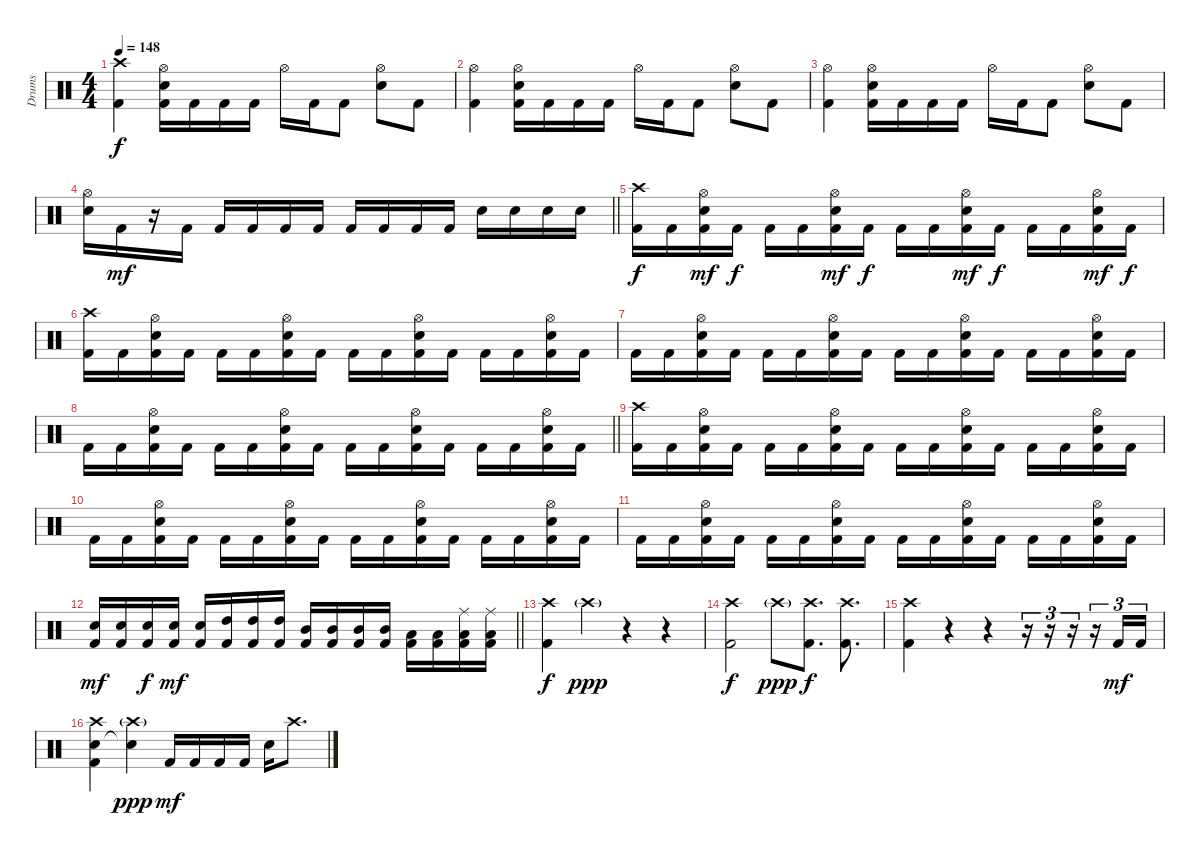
\track ("Drums" "Drums") {instrument percussion}
\staff {score}
\articulation defaults
\ts (4 4)
\tempo 148
\clef neutral
\ks c
("Crash high (hit)" "Kick (hit) 2").4{dy f} ("Electric Snare (hit)" "Hi-Hat (open)" "Kick (hit) 2").16 "Kick (hit) 2".16 "Kick (hit) 2".16 "Kick (hit) 2".16 "Hi-Hat (open)".16 "Kick (hit) 2".16 "Kick (hit) 2".8 ("Electric Snare (hit)" "Hi-Hat (open)").8 "Kick (hit) 2".8 |
("Hi-Hat (open)" "Kick (hit) 2").4 ("Electric Snare (hit)" "Hi-Hat (open)" "Kick (hit) 2").16 "Kick (hit) 2".16 "Kick (hit) 2".16 "Kick (hit) 2".16 "Hi-Hat (open)".16 "Kick (hit) 2".16 "Kick (hit) 2".8 ("Electric Snare (hit)" "Hi-Hat (open)").8 "Kick (hit) 2".8 |
("Hi-Hat (open)" "Kick (hit) 2").4 ("Electric Snare (hit)" "Hi-Hat (open)" "Kick (hit) 2").16 "Kick (hit) 2".16 "Kick (hit) 2".16 "Kick (hit) 2".16 "Hi-Hat (open)".16 "Kick (hit) 2".16 "Kick (hit) 2".8 ("Electric Snare (hit)" "Hi-Hat (open)").8 "Kick (hit) 2".8 |
\barLineRight lightlight
("Electric Snare (hit)" "Hi-Hat (open)").16 "Kick (hit) 2".16{dy mf} r.16 "Kick (hit) 2".16 "Kick (hit) 2".16 "Kick (hit) 2".16 "Kick (hit) 2".16 "Kick (hit) 2".16 "Kick (hit) 2".16 "Kick (hit) 2".16 "Kick (hit) 2".16 "Kick (hit) 2".16 "Electric Snare (hit)".16 "Electric Snare (hit)".16 "Electric Snare (hit)".16 "Electric Snare (hit)".16 |
\section ("" "")
("Crash high (hit)" "Kick (hit) 2").16{dy f} "Kick (hit) 2".16 ("Hi-Hat (open)" "Electric Snare (hit)" "Kick (hit) 2").16{dy mf} "Kick (hit) 2".16{dy f} "Kick (hit) 2".16 "Kick (hit) 2".16 ("Hi-Hat (open)" "Electric Snare (hit)" "Kick (hit) 2").16{dy mf} "Kick (hit) 2".16{dy f} "Kick (hit) 2".16 "Kick (hit) 2".16 ("Hi-Hat (open)" "Electric Snare (hit)" "Kick (hit) 2").16{dy mf} "Kick (hit) 2".16{dy f} "Kick (hit) 2".16 "Kick (hit) 2".16 ("Hi-Hat (open)" "Electric Snare (hit)" "Kick (hit) 2").16{dy mf} "Kick (hit) 2".16{dy f} |
("Crash high (hit)" "Kick (hit) 2").16 "Kick (hit) 2".16 ("Hi-Hat (open)" "Electric Snare (hit)" "Kick (hit) 2").16 "Kick (hit) 2".16 "Kick (hit) 2".16 "Kick (hit) 2".16 ("Hi-Hat (open)" "Electric Snare (hit)" "Kick (hit) 2").16 "Kick (hit) 2".16 "Kick (hit) 2".16 "Kick (hit) 2".16 ("Hi-Hat (open)" "Electric Snare (hit)" "Kick (hit) 2").16 "Kick (hit) 2".16 "Kick (hit) 2".16 "Kick (hit) 2".16 ("Hi-Hat (open)" "Electric Snare (hit)" "Kick (hit) 2").16 "Kick (hit) 2".16 |
"Kick (hit) 2".16 "Kick (hit) 2".16 ("Hi-Hat (open)" "Electric Snare (hit)" "Kick (hit) 2").16 "Kick (hit) 2".16 "Kick (hit) 2".16 "Kick (hit) 2".16 ("Hi-Hat (open)" "Electric Snare (hit)" "Kick (hit) 2").16 "Kick (hit) 2".16 "Kick (hit) 2".16 "Kick (hit) 2".16 ("Hi-Hat (open)" "Electric Snare (hit)" "Kick (hit) 2").16 "Kick (hit) 2".16 "Kick (hit) 2".16 "Kick (hit) 2".16 ("Hi-Hat (open)" "Electric Snare (hit)" "Kick (hit) 2").16 "Kick (hit) 2".16 |
\barLineRight lightlight "Kick (hit) 2".16 "Kick (hit) 2".16
("Hi-Hat (open)" "Electric Snare (hit)" "Kick (hit) 2").16 "Kick (hit) 2".16 "Kick (hit) 2".16 "Kick (hit) 2".16 ("Hi-Hat (open)" "Electric Snare (hit)" "Kick (hit) 2").16 "Kick (hit) 2".16 "Kick (hit) 2".16 "Kick (hit) 2".16 ("Hi-Hat (open)" "Electric Snare (hit)" "Kick (hit) 2").16 "Kick (hit) 2".16 "Kick (hit) 2".16 "Kick (hit) 2".16 ("Hi-Hat (open)" "Electric Snare (hit)" "Kick (hit) 2").16 "Kick (hit) 2".16 |
("Crash high (hit)" "Kick (hit) 2").16 "Kick (hit) 2".16 ("Hi-Hat (open)" "Electric Snare (hit)" "Kick (hit) 2").16 "Kick (hit) 2".16 "Kick (hit) 2".16 "Kick (hit) 2".16 ("Hi-Hat (open)" "Electric Snare (hit)" "Kick (hit) 2").16 "Kick (hit) 2".16 "Kick (hit) 2".16 "Kick (hit) 2".16 ("Hi-Hat (open)" "Electric Snare (hit)" "Kick (hit) 2").16 "Kick (hit) 2".16 "Kick (hit) 2".16 "Kick (hit) 2".16 ("Hi-Hat (open)" "Electric Snare (hit)" "Kick (hit) 2").16 "Kick (hit) 2".16 |
"Kick (hit) 2".16 "Kick (hit) 2".16 ("Hi-Hat (open)" "Electric Snare (hit)" "Kick (hit) 2").16 "Kick (hit) 2".16 "Kick (hit) 2".16 "Kick (hit) 2".16 ("Hi-Hat (open)" "Electric Snare (hit)" "Kick (hit) 2").16 "Kick (hit) 2".16 "Kick (hit) 2".16 "Kick (hit) 2".16 ("Hi-Hat (open)" "Electric Snare (hit)" "Kick (hit) 2").16 "Kick (hit) 2".16 "Kick (hit) 2".16 "Kick (hit) 2".16 ("Hi-Hat (open)" "Electric Snare (hit)" "Kick (hit) 2").16 "Kick (hit) 2".16 |
"Kick (hit) 2".16 "Kick (hit) 2".16 ("Hi-Hat (open)" "Electric Snare (hit)" "Kick (hit) 2").16 "Kick (hit) 2".16 "Kick (hit) 2".16 "Kick (hit) 2".16 ("Hi-Hat (open)" "Electric Snare (hit)" "Kick (hit) 2").16 "Kick (hit) 2".16 "Kick (hit) 2".16 "Kick (hit) 2".16 ("Hi-Hat (open)" "Electric Snare (hit)" "Kick (hit) 2").16 "Kick (hit) 2".16 "Kick (hit) 2".16 "Kick (hit) 2".16 ("Hi-Hat (open)" "Electric Snare (hit)" "Kick (hit) 2").16 "Kick (hit) 2".16 |
\barLineRight lightlight
("Electric Snare (hit)" "Kick (hit) 2").16{dy mf} ("Electric Snare (hit)" "Kick (hit) 2").16 ("Electric Snare (hit)" "Kick (hit) 2").16{dy f} ("Electric Snare (hit)" "Kick (hit) 2").16{dy mf} ("Electric Snare (hit)" "Kick (hit) 2").16 ("High Tom (hit)" "Kick (hit) 2").16 ("High Tom (hit)" "Kick (hit) 2").16 ("High Tom (hit)" "Kick (hit) 2").16 ("Mid Tom (hit)" "Kick (hit) 2").16 ("Mid Tom (hit)" "Kick (hit) 2").16 ("Mid Tom (hit)" "Kick (hit) 2").16 ("Mid Tom (hit)" "Kick (hit) 2").16 ("Low Tom (hit)" "Kick (hit) 2").16 ("Low Tom (hit)" "Kick (hit) 2").16 ("Ride (middle)" "Low Tom (hit)" "Kick (hit) 2").16 ("Ride (middle)" "Low Tom (hit)" "Kick (hit) 2").16 |
\section ("" "")
("Crash high (hit)" "Kick (hit) 2").4{dy f} "Crash high (hit)"{g}.4{dy ppp} r.4 r.4 |
("Crash high (hit)" "Kick (hit) 2").2{dy f} "Crash high (hit)"{g}.8{dy ppp} ("Crash high (hit)" "Kick (hit) 2").8{d dy f} ("Crash high (hit)" "Kick (hit) 2").8{d} |
("Crash high (hit)" "Kick (hit) 2").4 r.4 r.4 r.16{tu (3 2)} r.16{tu (3 2)} r.16{tu (3 2)} r.16{tu (3 2)} "Kick (hit) 2".16{tu (3 2) dy mf} "Kick (hit) 2".16{tu (3 2)} |
("Crash high (hit)" "Electric Snare (hit)" "Kick (hit) 2").4 ("Crash high (hit)"{g} "Snare (hit)"{t}).4{dy ppp} "Kick (hit) 2".16{dy mf} "Kick (hit) 2".16 "Kick (hit) 2".16 "Kick (hit) 2".16 "Electric Snare (hit)".16 "Crash high (hit)".8{d}
